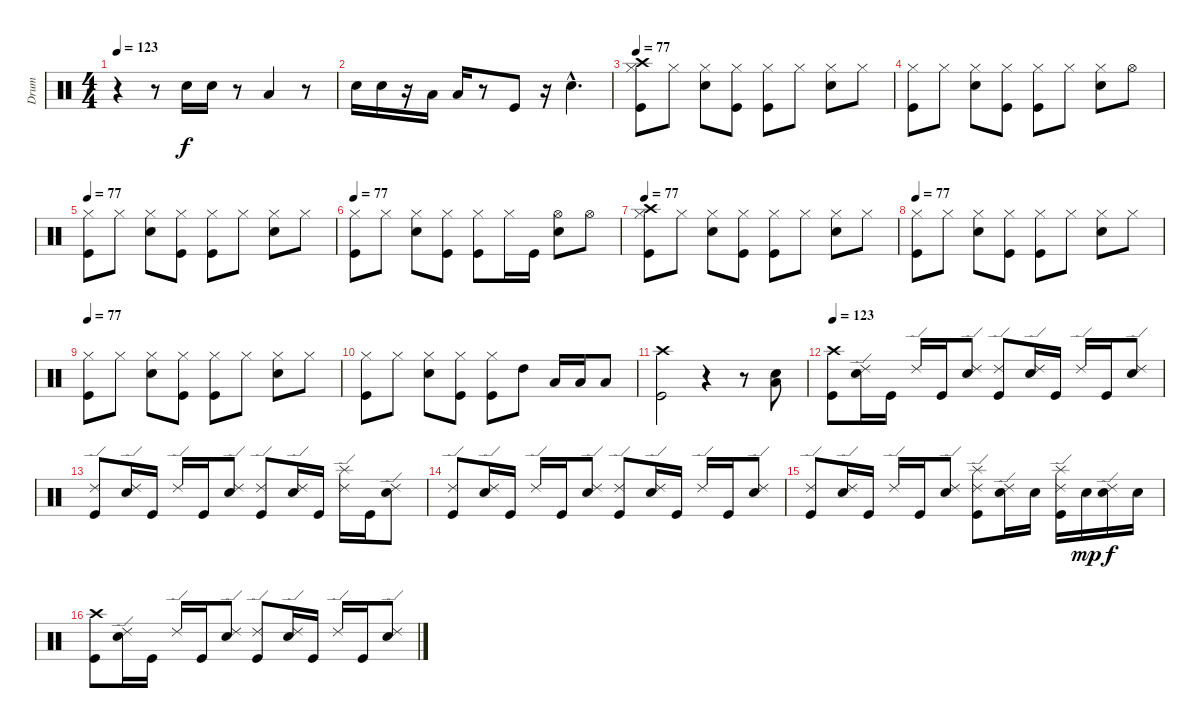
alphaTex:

\track ("Drum" "Drum") {instrument percussion}
\staff {score}
\articulation defaults
\ts (4 4)
\tempo 123
\clef neutral
\ks c
r.4{dy f} r.8 "Snare (hit) 2".16 "Snare (hit) 2".16 r.8 "Low Tom (hit)".4 r.8 |
"Snare (hit) 2".16 "Snare (hit) 2".16 r.16 "Low Tom (hit)".16 "Low Tom (hit)".16 r.8 "Kick (hit)".8 r.16 "Snare (hit) 2"{hac}.4{d} |
\tempo 77
("Hi-Hat (closed)" "Crash high (hit)" "Kick (hit)").8 "Hi-Hat (closed)".8 ("Hi-Hat (closed)" "Snare (hit) 2").8 ("Hi-Hat (closed)" "Kick (hit)").8 ("Hi-Hat (closed)" "Kick (hit)").8 "Hi-Hat (closed)".8 ("Hi-Hat (closed)" "Snare (hit) 2").8 "Hi-Hat (closed)".8 |
("Hi-Hat (closed)" "Kick (hit)").8 "Hi-Hat (closed)".8 ("Hi-Hat (closed)" "Snare (hit) 2").8 ("Hi-Hat (closed)" "Kick (hit)").8 ("Hi-Hat (closed)" "Kick (hit)").8 "Hi-Hat (closed)".8 ("Hi-Hat (closed)" "Snare (hit) 2").8 "Hi-Hat (open)".8 |
\tempo 77
("Hi-Hat (closed)" "Kick (hit)").8 "Hi-Hat (closed)".8 ("Hi-Hat (closed)" "Snare (hit) 2").8 ("Hi-Hat (closed)" "Kick (hit)").8 ("Hi-Hat (closed)" "Kick (hit)").8 "Hi-Hat (closed)".8 ("Hi-Hat (closed)" "Snare (hit) 2").8 "Hi-Hat (closed)".8 |
\tempo 77
("Hi-Hat (closed)" "Kick (hit)").8 "Hi-Hat (closed)".8 ("Hi-Hat (closed)" "Snare (hit) 2").8 ("Hi-Hat (closed)" "Kick (hit)").8 ("Hi-Hat (closed)" "Kick (hit)").8 "Hi-Hat (closed)".16 "Kick (hit)".16 ("Hi-Hat (open)" "Snare (hit) 2").8 "Hi-Hat (open)".8 |
\tempo 77
("Hi-Hat (closed)" "Crash high (hit)" "Kick (hit)").8 "Hi-Hat (closed)".8 ("Hi-Hat (closed)" "Snare (hit) 2").8 ("Hi-Hat (closed)" "Kick (hit)").8 ("Hi-Hat (closed)" "Kick (hit)").8 "Hi-Hat (closed)".8 ("Hi-Hat (closed)" "Snare (hit) 2").8 "Hi-Hat (closed)".8 |
\tempo 77
("Hi-Hat (closed)" "Kick (hit)").8 "Hi-Hat (closed)".8 ("Hi-Hat (closed)" "Snare (hit) 2").8 ("Hi-Hat (closed)" "Kick (hit)").8 ("Hi-Hat (closed)" "Kick (hit)").8 "Hi-Hat (closed)".8 ("Hi-Hat (closed)" "Snare (hit) 2").8 "Hi-Hat (closed)".8 |
\tempo 77
("Hi-Hat (closed)" "Kick (hit)").8 "Hi-Hat (closed)".8 ("Hi-Hat (closed)" "Snare (hit) 2").8 ("Hi-Hat (closed)" "Kick (hit)").8 ("Hi-Hat (closed)" "Kick (hit)").8 "Hi-Hat (closed)".8 ("Hi-Hat (closed)" "Snare (hit) 2").8 "Hi-Hat (closed)".8 |
("Hi-Hat (closed)" "Kick (hit)").8 "Hi-Hat (closed)".8 ("Hi-Hat (closed)" "Snare (hit) 2").8 ("Hi-Hat (closed)" "Kick (hit)").8 ("Hi-Hat (closed)" "Kick (hit)").8 "High Tom (hit)".8 "Low Tom (hit)".16 "Low Tom (hit)".16 "Low Tom (hit)".8 |
("Crash high (hit)" "Kick (hit)").2 r.4 r.8 ("Low Tom (hit)" "Snare (hit) 2").8 |
\tempo 123
("Crash high (hit)" "Kick (hit)").8 ("Ride (edge) 2" "Snare (hit) 2").16 "Kick (hit)".16 "Ride (edge) 2".16 "Kick (hit)".16 ("Ride (edge) 2" "Snare (hit) 2").8 ("Ride (edge) 2" "Kick (hit)").8 ("Ride (edge) 2" "Snare (hit) 2").16 "Kick (hit)".16 "Ride (edge) 2".16 "Kick (hit)".16 ("Ride (edge) 2" "Snare (hit) 2").8 |
("Ride (edge) 2" "Kick (hit)").8 ("Ride (edge) 2" "Snare (hit) 2").16 "Kick (hit)".16 "Ride (edge) 2".16 "Kick (hit)".16 ("Ride (edge) 2" "Snare (hit) 2").8 ("Ride (edge) 2" "Kick (hit)").8 ("Ride (edge) 2" "Snare (hit) 2").16 "Kick (hit)".16 ("Ride (edge) 2" "Splash (hit)").16 "Kick (hit)".16 ("Ride (edge) 2" "Snare (hit) 2").8 |
("Ride (edge) 2" "Kick (hit)").8 ("Ride (edge) 2" "Snare (hit) 2").16 "Kick (hit)".16 "Ride (edge) 2".16 "Kick (hit)".16 ("Ride (edge) 2" "Snare (hit) 2").8 ("Ride (edge) 2" "Kick (hit)").8 ("Ride (edge) 2" "Snare (hit) 2").16 "Kick (hit)".16 "Ride (edge) 2".16 "Kick (hit)".16 ("Ride (edge) 2" "Snare (hit) 2").8 |
("Ride (edge) 2" "Kick (hit)").8 ("Ride (edge) 2" "Snare (hit) 2").16 "Kick (hit)".16 "Ride (edge) 2".16 "Kick (hit)".16 ("Ride (edge) 2" "Snare (hit) 2").8 ("Ride (edge) 2" "Splash (hit)" "Kick (hit)").8 ("Ride (edge) 2" "Snare (hit) 2").16 "Snare (hit) 2".16 ("Ride (edge) 2" "Splash (hit)" "Kick (hit)").16 "Snare (hit) 2".16{dy mp} ("Ride (edge) 2" "Snare (hit) 2").16{dy f} "Snare (hit) 2".16 |
("Crash high (hit)" "Kick (hit)").8 ("Ride (edge) 2" "Snare (hit) 2").16 "Kick (hit)".16 "Ride (edge) 2".16 "Kick (hit)".16 ("Ride (edge) 2" "Snare (hit) 2").8 ("Ride (edge) 2" "Kick (hit)").8 ("Ride (edge) 2" "Snare (hit) 2").16 "Kick (hit)".16 "Ride (edge) 2".16 "Kick (hit)".16 ("Ride (edge) 2" "Snare (hit) 2").8
